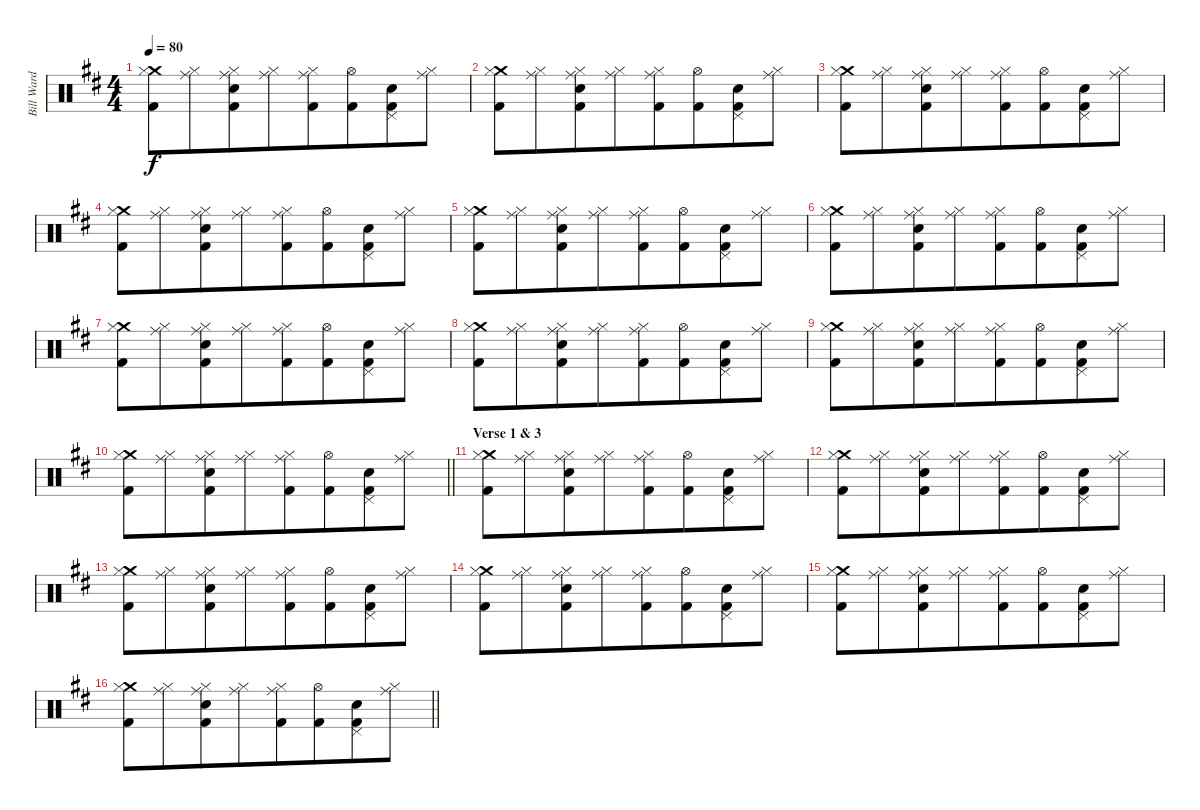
\track ("Bill Ward" "Bill Ward") {instrument percussion}
\staff {score}
\articulation defaults
\ts (4 4)
\tempo 80
\clef neutral
\ks d
("Crash medium (hit)" "Hi-Hat (closed)" "Kick (hit) 2").8{dy f} ("Ride (middle)" "Hi-Hat (closed)").8{beam merge} ("Ride (middle)" "Hi-Hat (closed)" "Snare (hit) 2" "Kick (hit) 2").8 ("Ride (middle)" "Hi-Hat (closed)").8{beam merge} ("Ride (middle)" "Hi-Hat (closed)" "Kick (hit) 2").8 ("Hi-Hat (open)" "Kick (hit) 2").8{beam merge} ("Pedal Hi-Hat (hit)" "Snare (hit) 2" "Kick (hit) 2").8 ("Ride (middle)" "Hi-Hat (closed)").8 |
("Crash medium (hit)" "Hi-Hat (closed)" "Kick (hit) 2").8 ("Ride (middle)" "Hi-Hat (closed)").8{beam merge} ("Ride (middle)" "Hi-Hat (closed)" "Snare (hit) 2" "Kick (hit) 2").8 ("Ride (middle)" "Hi-Hat (closed)").8{beam merge} ("Ride (middle)" "Hi-Hat (closed)" "Kick (hit) 2").8 ("Hi-Hat (open)" "Kick (hit) 2").8{beam merge} ("Pedal Hi-Hat (hit)" "Snare (hit) 2" "Kick (hit) 2").8 ("Ride (middle)" "Hi-Hat (closed)").8 |
("Crash medium (hit)" "Hi-Hat (closed)" "Kick (hit) 2").8 ("Ride (middle)" "Hi-Hat (closed)").8{beam merge} ("Ride (middle)" "Hi-Hat (closed)" "Snare (hit) 2" "Kick (hit) 2").8 ("Ride (middle)" "Hi-Hat (closed)").8{beam merge} ("Ride (middle)" "Hi-Hat (closed)" "Kick (hit) 2").8 ("Hi-Hat (open)" "Kick (hit) 2").8{beam merge} ("Pedal Hi-Hat (hit)" "Snare (hit) 2" "Kick (hit) 2").8 ("Ride (middle)" "Hi-Hat (closed)").8 |
("Crash medium (hit)" "Hi-Hat (closed)" "Kick (hit) 2").8 ("Ride (middle)" "Hi-Hat (closed)").8{beam merge} ("Ride (middle)" "Hi-Hat (closed)" "Snare (hit) 2" "Kick (hit) 2").8 ("Ride (middle)" "Hi-Hat (closed)").8{beam merge} ("Ride (middle)" "Hi-Hat (closed)" "Kick (hit) 2").8 ("Hi-Hat (open)" "Kick (hit) 2").8{beam merge} ("Pedal Hi-Hat (hit)" "Snare (hit) 2" "Kick (hit) 2").8 ("Ride (middle)" "Hi-Hat (closed)").8 |
("Crash medium (hit)" "Hi-Hat (closed)" "Kick (hit) 2").8 ("Ride (middle)" "Hi-Hat (closed)").8{beam merge} ("Ride (middle)" "Hi-Hat (closed)" "Snare (hit) 2" "Kick (hit) 2").8 ("Ride (middle)" "Hi-Hat (closed)").8{beam merge} ("Ride (middle)" "Hi-Hat (closed)" "Kick (hit) 2").8 ("Hi-Hat (open)" "Kick (hit) 2").8{beam merge} ("Pedal Hi-Hat (hit)" "Snare (hit) 2" "Kick (hit) 2").8 ("Ride (middle)" "Hi-Hat (closed)").8 |
("Crash medium (hit)" "Hi-Hat (closed)" "Kick (hit) 2").8 ("Ride (middle)" "Hi-Hat (closed)").8{beam merge} ("Ride (middle)" "Hi-Hat (closed)" "Snare (hit) 2" "Kick (hit) 2").8 ("Ride (middle)" "Hi-Hat (closed)").8{beam merge} ("Ride (middle)" "Hi-Hat (closed)" "Kick (hit) 2").8 ("Hi-Hat (open)" "Kick (hit) 2").8{beam merge} ("Pedal Hi-Hat (hit)" "Snare (hit) 2" "Kick (hit) 2").8 ("Ride (middle)" "Hi-Hat (closed)").8 |
("Crash medium (hit)" "Hi-Hat (closed)" "Kick (hit) 2").8 ("Ride (middle)" "Hi-Hat (closed)").8{beam merge} ("Ride (middle)" "Hi-Hat (closed)" "Snare (hit) 2" "Kick (hit) 2").8 ("Ride (middle)" "Hi-Hat (closed)").8{beam merge} ("Ride (middle)" "Hi-Hat (closed)" "Kick (hit) 2").8 ("Hi-Hat (open)" "Kick (hit) 2").8{beam merge} ("Pedal Hi-Hat (hit)" "Snare (hit) 2" "Kick (hit) 2").8 ("Ride (middle)" "Hi-Hat (closed)").8 |
("Crash medium (hit)" "Hi-Hat (closed)" "Kick (hit) 2").8 ("Ride (middle)" "Hi-Hat (closed)").8{beam merge} ("Ride (middle)" "Hi-Hat (closed)" "Snare (hit) 2" "Kick (hit) 2").8 ("Ride (middle)" "Hi-Hat (closed)").8{beam merge} ("Ride (middle)" "Hi-Hat (closed)" "Kick (hit) 2").8 ("Hi-Hat (open)" "Kick (hit) 2").8{beam merge} ("Pedal Hi-Hat (hit)" "Snare (hit) 2" "Kick (hit) 2").8 ("Ride (middle)" "Hi-Hat (closed)").8 |
("Crash medium (hit)" "Hi-Hat (closed)" "Kick (hit) 2").8 ("Ride (middle)" "Hi-Hat (closed)").8{beam merge} ("Ride (middle)" "Hi-Hat (closed)" "Snare (hit) 2" "Kick (hit) 2").8 ("Ride (middle)" "Hi-Hat (closed)").8{beam merge} ("Ride (middle)" "Hi-Hat (closed)" "Kick (hit) 2").8 ("Hi-Hat (open)" "Kick (hit) 2").8{beam merge} ("Pedal Hi-Hat (hit)" "Snare (hit) 2" "Kick (hit) 2").8 ("Ride (middle)" "Hi-Hat (closed)").8 |
\barLineRight lightlight
("Crash medium (hit)" "Hi-Hat (closed)" "Kick (hit) 2").8 ("Ride (middle)" "Hi-Hat (closed)").8{beam merge} ("Ride (middle)" "Hi-Hat (closed)" "Snare (hit) 2" "Kick (hit) 2").8 ("Ride (middle)" "Hi-Hat (closed)").8{beam merge} ("Ride (middle)" "Hi-Hat (closed)" "Kick (hit) 2").8 ("Hi-Hat (open)" "Kick (hit) 2").8{beam merge} ("Pedal Hi-Hat (hit)" "Snare (hit) 2" "Kick (hit) 2").8 ("Ride (middle)" "Hi-Hat (closed)").8 |
\section ("" "Verse 1 & 3")
("Crash medium (hit)" "Hi-Hat (closed)" "Kick (hit) 2").8 ("Ride (middle)" "Hi-Hat (closed)").8{beam merge} ("Ride (middle)" "Hi-Hat (closed)" "Snare (hit) 2" "Kick (hit) 2").8 ("Ride (middle)" "Hi-Hat (closed)").8{beam merge} ("Ride (middle)" "Hi-Hat (closed)" "Kick (hit) 2").8 ("Hi-Hat (open)" "Kick (hit) 2").8{beam merge} ("Pedal Hi-Hat (hit)" "Snare (hit) 2" "Kick (hit) 2").8 ("Ride (middle)" "Hi-Hat (closed)").8 |
("Crash medium (hit)" "Hi-Hat (closed)" "Kick (hit) 2").8 ("Ride (middle)" "Hi-Hat (closed)").8{beam merge} ("Ride (middle)" "Hi-Hat (closed)" "Snare (hit) 2" "Kick (hit) 2").8 ("Ride (middle)" "Hi-Hat (closed)").8{beam merge} ("Ride (middle)" "Hi-Hat (closed)" "Kick (hit) 2").8 ("Hi-Hat (open)" "Kick (hit) 2").8{beam merge} ("Pedal Hi-Hat (hit)" "Snare (hit) 2" "Kick (hit) 2").8 ("Ride (middle)" "Hi-Hat (closed)").8 |
("Crash medium (hit)" "Hi-Hat (closed)" "Kick (hit) 2").8 ("Ride (middle)" "Hi-Hat (closed)").8{beam merge} ("Ride (middle)" "Hi-Hat (closed)" "Snare (hit) 2" "Kick (hit) 2").8 ("Ride (middle)" "Hi-Hat (closed)").8{beam merge} ("Ride (middle)" "Hi-Hat (closed)" "Kick (hit) 2").8 ("Hi-Hat (open)" "Kick (hit) 2").8{beam merge} ("Pedal Hi-Hat (hit)" "Snare (hit) 2" "Kick (hit) 2").8 ("Ride (middle)" "Hi-Hat (closed)").8 |
("Crash medium (hit)" "Hi-Hat (closed)" "Kick (hit) 2").8 ("Ride (middle)" "Hi-Hat (closed)").8{beam merge} ("Ride (middle)" "Hi-Hat (closed)" "Snare (hit) 2" "Kick (hit) 2").8 ("Ride (middle)" "Hi-Hat (closed)").8{beam merge} ("Ride (middle)" "Hi-Hat (closed)" "Kick (hit) 2").8 ("Hi-Hat (open)" "Kick (hit) 2").8{beam merge} ("Pedal Hi-Hat (hit)" "Snare (hit) 2" "Kick (hit) 2").8 ("Ride (middle)" "Hi-Hat (closed)").8 |
("Crash medium (hit)" "Hi-Hat (closed)" "Kick (hit) 2").8 ("Ride (middle)" "Hi-Hat (closed)").8{beam merge} ("Ride (middle)" "Hi-Hat (closed)" "Snare (hit) 2" "Kick (hit) 2").8 ("Ride (middle)" "Hi-Hat (closed)").8{beam merge} ("Ride (middle)" "Hi-Hat (closed)" "Kick (hit) 2").8 ("Hi-Hat (open)" "Kick (hit) 2").8{beam merge} ("Pedal Hi-Hat (hit)" "Snare (hit) 2" "Kick (hit) 2").8 ("Ride (middle)" "Hi-Hat (closed)").8 |
\barLineRight lightlight
("Crash medium (hit)" "Hi-Hat (closed)" "Kick (hit) 2").8 ("Ride (middle)" "Hi-Hat (closed)").8{beam merge} ("Ride (middle)" "Hi-Hat (closed)" "Snare (hit) 2" "Kick (hit) 2").8 ("Ride (middle)" "Hi-Hat (closed)").8{beam merge} ("Ride (middle)" "Hi-Hat (closed)" "Kick (hit) 2").8 ("Hi-Hat (open)" "Kick (hit) 2").8{beam merge} ("Pedal Hi-Hat (hit)" "Snare (hit) 2" "Kick (hit) 2").8 ("Ride (middle)" "Hi-Hat (closed)").8
